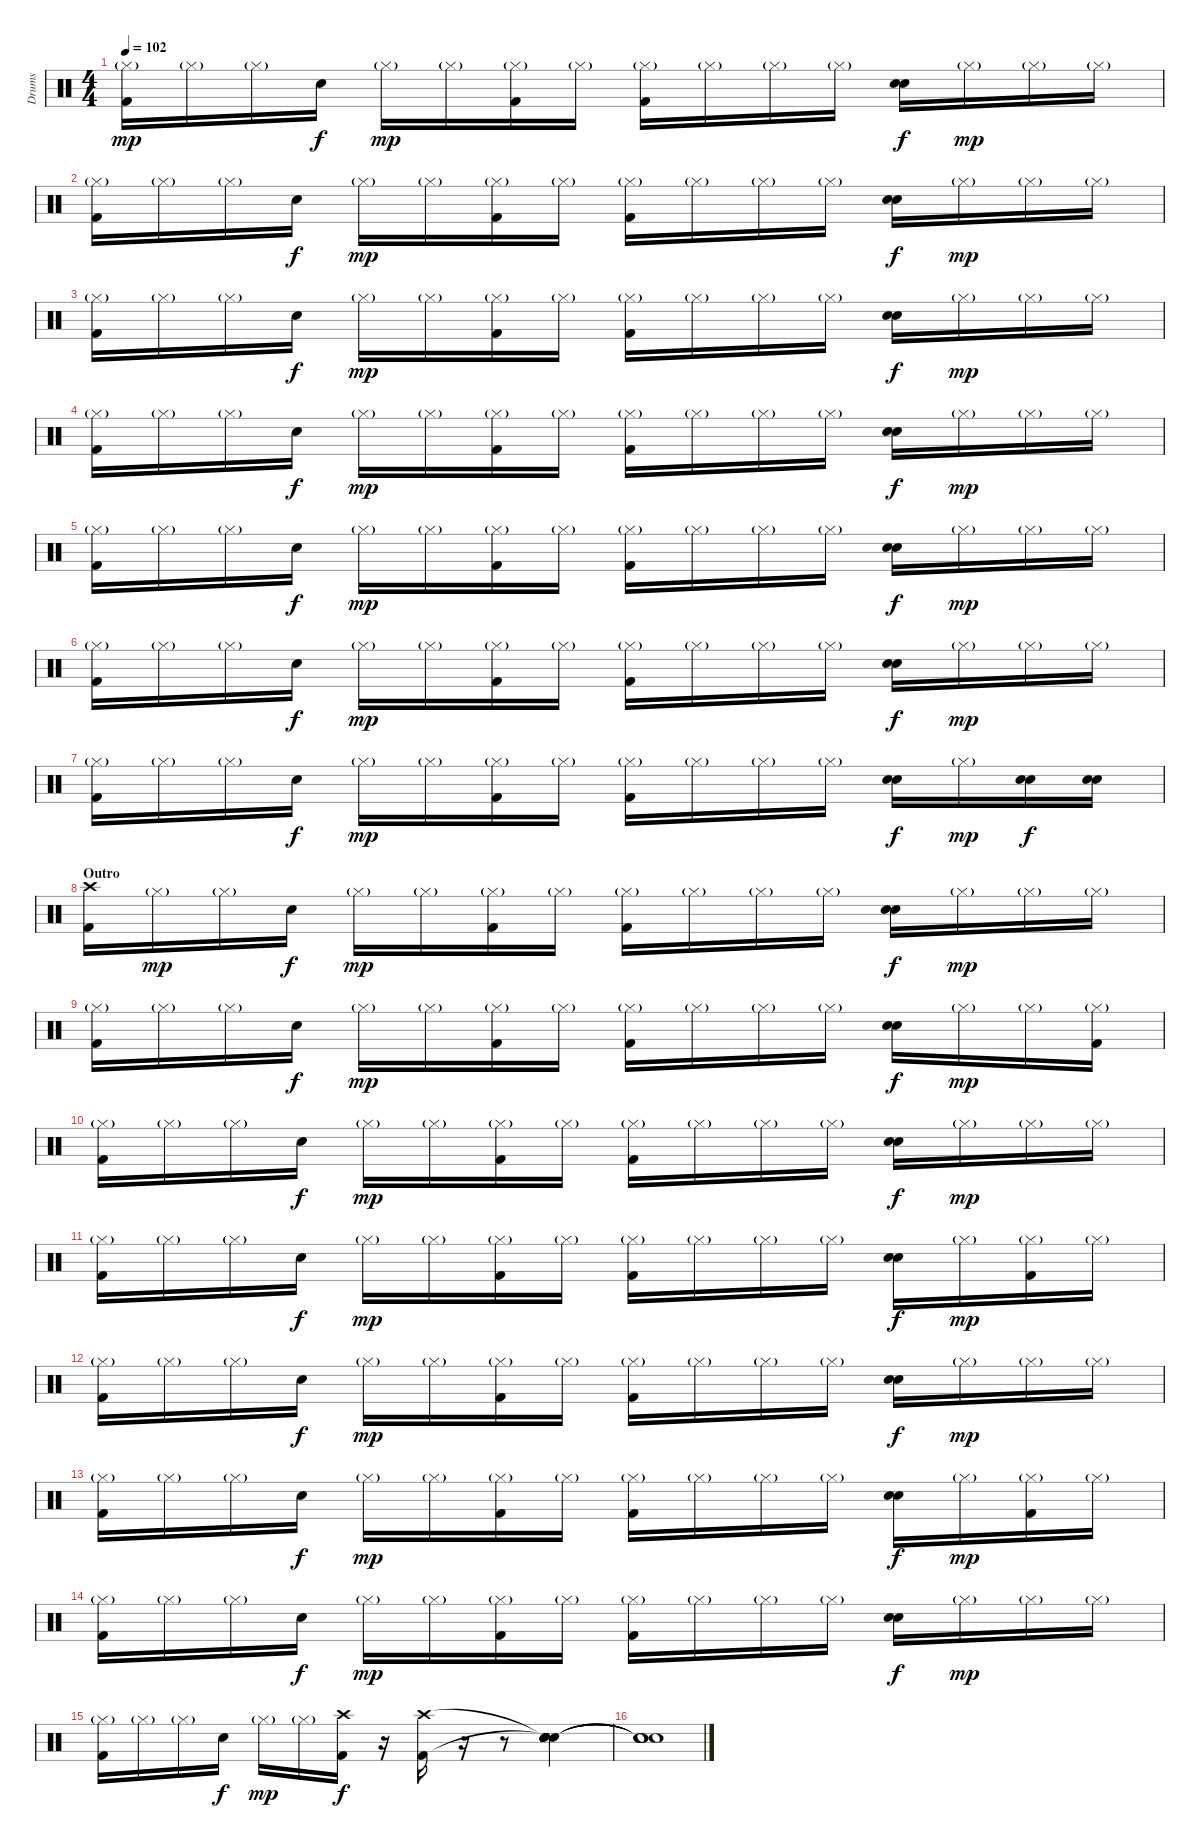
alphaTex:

\track ("Drums" "Drums") {instrument percussion}
\staff {score}
\articulation defaults
\ts (4 4)
\tempo 102
\clef neutral
\ks c
("Hi-Hat (closed)"{g} "Kick (hit) 2").16{dy mp} "Hi-Hat (closed)"{g}.16 "Hi-Hat (closed)"{g}.16 "Snare (hit) 2".16{dy f} "Hi-Hat (closed)"{g}.16{dy mp} "Hi-Hat (closed)"{g}.16 ("Hi-Hat (closed)"{g} "Kick (hit) 2").16 "Hi-Hat (closed)"{g}.16 ("Hi-Hat (closed)"{g} "Kick (hit) 2").16 "Hi-Hat (closed)"{g}.16 "Hi-Hat (closed)"{g}.16 "Hi-Hat (closed)"{g}.16 ("Snare (hit) 2" "Snare (hit) 2").16{dy f} "Hi-Hat (closed)"{g}.16{dy mp} "Hi-Hat (closed)"{g}.16 "Hi-Hat (closed)"{g}.16 |
("Hi-Hat (closed)"{g} "Kick (hit) 2").16 "Hi-Hat (closed)"{g}.16 "Hi-Hat (closed)"{g}.16 "Snare (hit) 2".16{dy f} "Hi-Hat (closed)"{g}.16{dy mp} "Hi-Hat (closed)"{g}.16 ("Hi-Hat (closed)"{g} "Kick (hit) 2").16 "Hi-Hat (closed)"{g}.16 ("Hi-Hat (closed)"{g} "Kick (hit) 2").16 "Hi-Hat (closed)"{g}.16 "Hi-Hat (closed)"{g}.16 "Hi-Hat (closed)"{g}.16 ("Snare (hit) 2" "Snare (hit) 2").16{dy f} "Hi-Hat (closed)"{g}.16{dy mp} "Hi-Hat (closed)"{g}.16 "Hi-Hat (closed)"{g}.16 |
("Hi-Hat (closed)"{g} "Kick (hit) 2").16 "Hi-Hat (closed)"{g}.16 "Hi-Hat (closed)"{g}.16 "Snare (hit) 2".16{dy f} "Hi-Hat (closed)"{g}.16{dy mp} "Hi-Hat (closed)"{g}.16 ("Hi-Hat (closed)"{g} "Kick (hit) 2").16 "Hi-Hat (closed)"{g}.16 ("Hi-Hat (closed)"{g} "Kick (hit) 2").16 "Hi-Hat (closed)"{g}.16 "Hi-Hat (closed)"{g}.16 "Hi-Hat (closed)"{g}.16 ("Snare (hit) 2" "Snare (hit) 2").16{dy f} "Hi-Hat (closed)"{g}.16{dy mp} "Hi-Hat (closed)"{g}.16 "Hi-Hat (closed)"{g}.16 |
("Hi-Hat (closed)"{g} "Kick (hit) 2").16 "Hi-Hat (closed)"{g}.16 "Hi-Hat (closed)"{g}.16 "Snare (hit) 2".16{dy f} "Hi-Hat (closed)"{g}.16{dy mp} "Hi-Hat (closed)"{g}.16 ("Hi-Hat (closed)"{g} "Kick (hit) 2").16 "Hi-Hat (closed)"{g}.16 ("Hi-Hat (closed)"{g} "Kick (hit) 2").16 "Hi-Hat (closed)"{g}.16 "Hi-Hat (closed)"{g}.16 "Hi-Hat (closed)"{g}.16 ("Snare (hit) 2" "Snare (hit) 2").16{dy f} "Hi-Hat (closed)"{g}.16{dy mp} "Hi-Hat (closed)"{g}.16 "Hi-Hat (closed)"{g}.16 |
("Hi-Hat (closed)"{g} "Kick (hit) 2").16 "Hi-Hat (closed)"{g}.16 "Hi-Hat (closed)"{g}.16 "Snare (hit) 2".16{dy f} "Hi-Hat (closed)"{g}.16{dy mp} "Hi-Hat (closed)"{g}.16 ("Hi-Hat (closed)"{g} "Kick (hit) 2").16 "Hi-Hat (closed)"{g}.16 ("Hi-Hat (closed)"{g} "Kick (hit) 2").16 "Hi-Hat (closed)"{g}.16 "Hi-Hat (closed)"{g}.16 "Hi-Hat (closed)"{g}.16 ("Snare (hit) 2" "Snare (hit) 2").16{dy f} "Hi-Hat (closed)"{g}.16{dy mp} "Hi-Hat (closed)"{g}.16 "Hi-Hat (closed)"{g}.16 |
("Hi-Hat (closed)"{g} "Kick (hit) 2").16 "Hi-Hat (closed)"{g}.16 "Hi-Hat (closed)"{g}.16 "Snare (hit) 2".16{dy f} "Hi-Hat (closed)"{g}.16{dy mp} "Hi-Hat (closed)"{g}.16 ("Hi-Hat (closed)"{g} "Kick (hit) 2").16 "Hi-Hat (closed)"{g}.16 ("Hi-Hat (closed)"{g} "Kick (hit) 2").16 "Hi-Hat (closed)"{g}.16 "Hi-Hat (closed)"{g}.16 "Hi-Hat (closed)"{g}.16 ("Snare (hit) 2" "Snare (hit) 2").16{dy f} "Hi-Hat (closed)"{g}.16{dy mp} "Hi-Hat (closed)"{g}.16 "Hi-Hat (closed)"{g}.16 |
("Hi-Hat (closed)"{g} "Kick (hit) 2").16 "Hi-Hat (closed)"{g}.16 "Hi-Hat (closed)"{g}.16 "Snare (hit) 2".16{dy f} "Hi-Hat (closed)"{g}.16{dy mp} "Hi-Hat (closed)"{g}.16 ("Hi-Hat (closed)"{g} "Kick (hit) 2").16 "Hi-Hat (closed)"{g}.16 ("Hi-Hat (closed)"{g} "Kick (hit) 2").16 "Hi-Hat (closed)"{g}.16 "Hi-Hat (closed)"{g}.16 "Hi-Hat (closed)"{g}.16 ("Snare (hit) 2" "Snare (hit) 2").16{dy f} "Hi-Hat (closed)"{g}.16{dy mp} ("Snare (hit) 2" "Snare (hit) 2").16{dy f} ("Snare (hit) 2" "Snare (hit) 2").16 |
\section ("" "Outro")
("Crash high (hit)" "Kick (hit) 2").16 "Hi-Hat (closed)"{g}.16{dy mp} "Hi-Hat (closed)"{g}.16 "Snare (hit) 2".16{dy f} "Hi-Hat (closed)"{g}.16{dy mp} "Hi-Hat (closed)"{g}.16 ("Hi-Hat (closed)"{g} "Kick (hit) 2").16 "Hi-Hat (closed)"{g}.16 ("Hi-Hat (closed)"{g} "Kick (hit) 2").16 "Hi-Hat (closed)"{g}.16 "Hi-Hat (closed)"{g}.16 "Hi-Hat (closed)"{g}.16 ("Snare (hit) 2" "Snare (hit) 2").16{dy f} "Hi-Hat (closed)"{g}.16{dy mp} "Hi-Hat (closed)"{g}.16 "Hi-Hat (closed)"{g}.16 |
("Hi-Hat (closed)"{g} "Kick (hit) 2").16 "Hi-Hat (closed)"{g}.16 "Hi-Hat (closed)"{g}.16 "Snare (hit) 2".16{dy f} "Hi-Hat (closed)"{g}.16{dy mp} "Hi-Hat (closed)"{g}.16 ("Hi-Hat (closed)"{g} "Kick (hit) 2").16 "Hi-Hat (closed)"{g}.16 ("Hi-Hat (closed)"{g} "Kick (hit) 2").16 "Hi-Hat (closed)"{g}.16 "Hi-Hat (closed)"{g}.16 "Hi-Hat (closed)"{g}.16 ("Snare (hit) 2" "Snare (hit) 2").16{dy f} "Hi-Hat (closed)"{g}.16{dy mp} "Hi-Hat (closed)"{g}.16 ("Hi-Hat (closed)"{g} "Kick (hit) 2").16 |
("Hi-Hat (closed)"{g} "Kick (hit) 2").16 "Hi-Hat (closed)"{g}.16 "Hi-Hat (closed)"{g}.16 "Snare (hit) 2".16{dy f} "Hi-Hat (closed)"{g}.16{dy mp} "Hi-Hat (closed)"{g}.16 ("Hi-Hat (closed)"{g} "Kick (hit) 2").16 "Hi-Hat (closed)"{g}.16 ("Hi-Hat (closed)"{g} "Kick (hit) 2").16 "Hi-Hat (closed)"{g}.16 "Hi-Hat (closed)"{g}.16 "Hi-Hat (closed)"{g}.16 ("Snare (hit) 2" "Snare (hit) 2").16{dy f} "Hi-Hat (closed)"{g}.16{dy mp} "Hi-Hat (closed)"{g}.16 "Hi-Hat (closed)"{g}.16 |
("Hi-Hat (closed)"{g} "Kick (hit) 2").16 "Hi-Hat (closed)"{g}.16 "Hi-Hat (closed)"{g}.16 "Snare (hit) 2".16{dy f} "Hi-Hat (closed)"{g}.16{dy mp} "Hi-Hat (closed)"{g}.16 ("Hi-Hat (closed)"{g} "Kick (hit) 2").16 "Hi-Hat (closed)"{g}.16 ("Hi-Hat (closed)"{g} "Kick (hit) 2").16 "Hi-Hat (closed)"{g}.16 "Hi-Hat (closed)"{g}.16 "Hi-Hat (closed)"{g}.16 ("Snare (hit) 2" "Snare (hit) 2").16{dy f} "Hi-Hat (closed)"{g}.16{dy mp} ("Hi-Hat (closed)"{g} "Kick (hit) 2").16 "Hi-Hat (closed)"{g}.16 |
("Hi-Hat (closed)"{g} "Kick (hit) 2").16 "Hi-Hat (closed)"{g}.16 "Hi-Hat (closed)"{g}.16 "Snare (hit) 2".16{dy f} "Hi-Hat (closed)"{g}.16{dy mp} "Hi-Hat (closed)"{g}.16 ("Hi-Hat (closed)"{g} "Kick (hit) 2").16 "Hi-Hat (closed)"{g}.16 ("Hi-Hat (closed)"{g} "Kick (hit) 2").16 "Hi-Hat (closed)"{g}.16 "Hi-Hat (closed)"{g}.16 "Hi-Hat (closed)"{g}.16 ("Snare (hit) 2" "Snare (hit) 2").16{dy f} "Hi-Hat (closed)"{g}.16{dy mp} "Hi-Hat (closed)"{g}.16 "Hi-Hat (closed)"{g}.16 |
("Hi-Hat (closed)"{g} "Kick (hit) 2").16 "Hi-Hat (closed)"{g}.16 "Hi-Hat (closed)"{g}.16 "Snare (hit) 2".16{dy f} "Hi-Hat (closed)"{g}.16{dy mp} "Hi-Hat (closed)"{g}.16 ("Hi-Hat (closed)"{g} "Kick (hit) 2").16 "Hi-Hat (closed)"{g}.16 ("Hi-Hat (closed)"{g} "Kick (hit) 2").16 "Hi-Hat (closed)"{g}.16 "Hi-Hat (closed)"{g}.16 "Hi-Hat (closed)"{g}.16 ("Snare (hit) 2" "Snare (hit) 2").16{dy f} "Hi-Hat (closed)"{g}.16{dy mp} ("Hi-Hat (closed)"{g} "Kick (hit) 2").16 "Hi-Hat (closed)"{g}.16 |
("Hi-Hat (closed)"{g} "Kick (hit) 2").16 "Hi-Hat (closed)"{g}.16 "Hi-Hat (closed)"{g}.16 "Snare (hit) 2".16{dy f} "Hi-Hat (closed)"{g}.16{dy mp} "Hi-Hat (closed)"{g}.16 ("Hi-Hat (closed)"{g} "Kick (hit) 2").16 "Hi-Hat (closed)"{g}.16 ("Hi-Hat (closed)"{g} "Kick (hit) 2").16 "Hi-Hat (closed)"{g}.16 "Hi-Hat (closed)"{g}.16 "Hi-Hat (closed)"{g}.16 ("Snare (hit) 2" "Snare (hit) 2").16{dy f} "Hi-Hat (closed)"{g}.16{dy mp} "Hi-Hat (closed)"{g}.16 "Hi-Hat (closed)"{g}.16 |
("Hi-Hat (closed)"{g} "Kick (hit) 2").16 "Hi-Hat (closed)"{g}.16 "Hi-Hat (closed)"{g}.16 "Snare (hit) 2".16{dy f} "Hi-Hat (closed)"{g}.16{dy mp} "Hi-Hat (closed)"{g}.16 ("Crash high (hit)" "Kick (hit) 2").16{dy f} r.16 ("Crash high (hit)" "Kick (hit) 2").16 r.16 r.8 ("Snare (hit)"{t} "Snare (hit)"{t} "Snare (hit)" "Snare (hit)").4 |
("Snare (hit)"{t} "Snare (hit)"{t} "Snare (hit)"{t} "Snare (hit)"{t}).1
